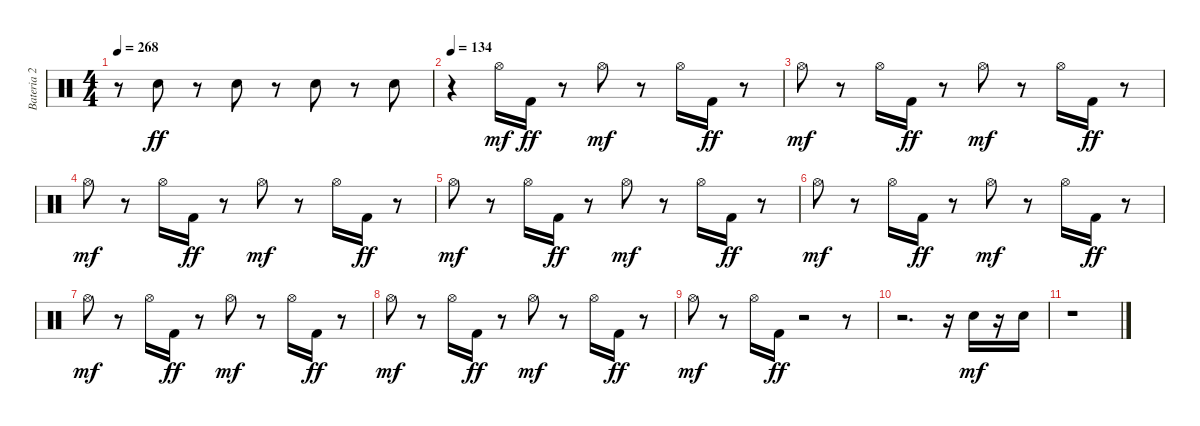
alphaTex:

\track ("Bateria 2" "Bateria 2") {instrument percussion}
\staff {score}
\articulation defaults
\ts (4 4)
\tempo 268
\clef neutral
\ks c
r.8{dy ff} "Electric Snare (hit)".8 r.8 "Electric Snare (hit)".8 r.8 "Electric Snare (hit)".8 r.8 "Electric Snare (hit)".8 |
\tempo 134
r.4 "Hi-Hat (open)".16{dy mf} "Kick (hit) 2".16{dy ff} r.8 "Hi-Hat (open)".8{dy mf} r.8 "Hi-Hat (open)".16 "Kick (hit) 2".16{dy ff} r.8 |
"Hi-Hat (open)".8{dy mf} r.8 "Hi-Hat (open)".16 "Kick (hit) 2".16{dy ff} r.8 "Hi-Hat (open)".8{dy mf} r.8 "Hi-Hat (open)".16 "Kick (hit) 2".16{dy ff} r.8 |
"Hi-Hat (open)".8{dy mf} r.8 "Hi-Hat (open)".16 "Kick (hit) 2".16{dy ff} r.8 "Hi-Hat (open)".8{dy mf} r.8 "Hi-Hat (open)".16 "Kick (hit) 2".16{dy ff} r.8 |
"Hi-Hat (open)".8{dy mf} r.8 "Hi-Hat (open)".16 "Kick (hit) 2".16{dy ff} r.8 "Hi-Hat (open)".8{dy mf} r.8 "Hi-Hat (open)".16 "Kick (hit) 2".16{dy ff} r.8 |
"Hi-Hat (open)".8{dy mf} r.8 "Hi-Hat (open)".16 "Kick (hit) 2".16{dy ff} r.8 "Hi-Hat (open)".8{dy mf} r.8 "Hi-Hat (open)".16 "Kick (hit) 2".16{dy ff} r.8 |
"Hi-Hat (open)".8{dy mf} r.8 "Hi-Hat (open)".16 "Kick (hit) 2".16{dy ff} r.8 "Hi-Hat (open)".8{dy mf} r.8 "Hi-Hat (open)".16 "Kick (hit) 2".16{dy ff} r.8 |
"Hi-Hat (open)".8{dy mf} r.8 "Hi-Hat (open)".16 "Kick (hit) 2".16{dy ff} r.8 "Hi-Hat (open)".8{dy mf} r.8 "Hi-Hat (open)".16 "Kick (hit) 2".16{dy ff} r.8 |
"Hi-Hat (open)".8{dy mf} r.8 "Hi-Hat (open)".16 "Kick (hit) 2".16{dy ff} r.2 r.8 |
r.2{d} r.16 "Electric Snare (hit)".16{dy mf} r.16 "Electric Snare (hit)".16 |
r.1
